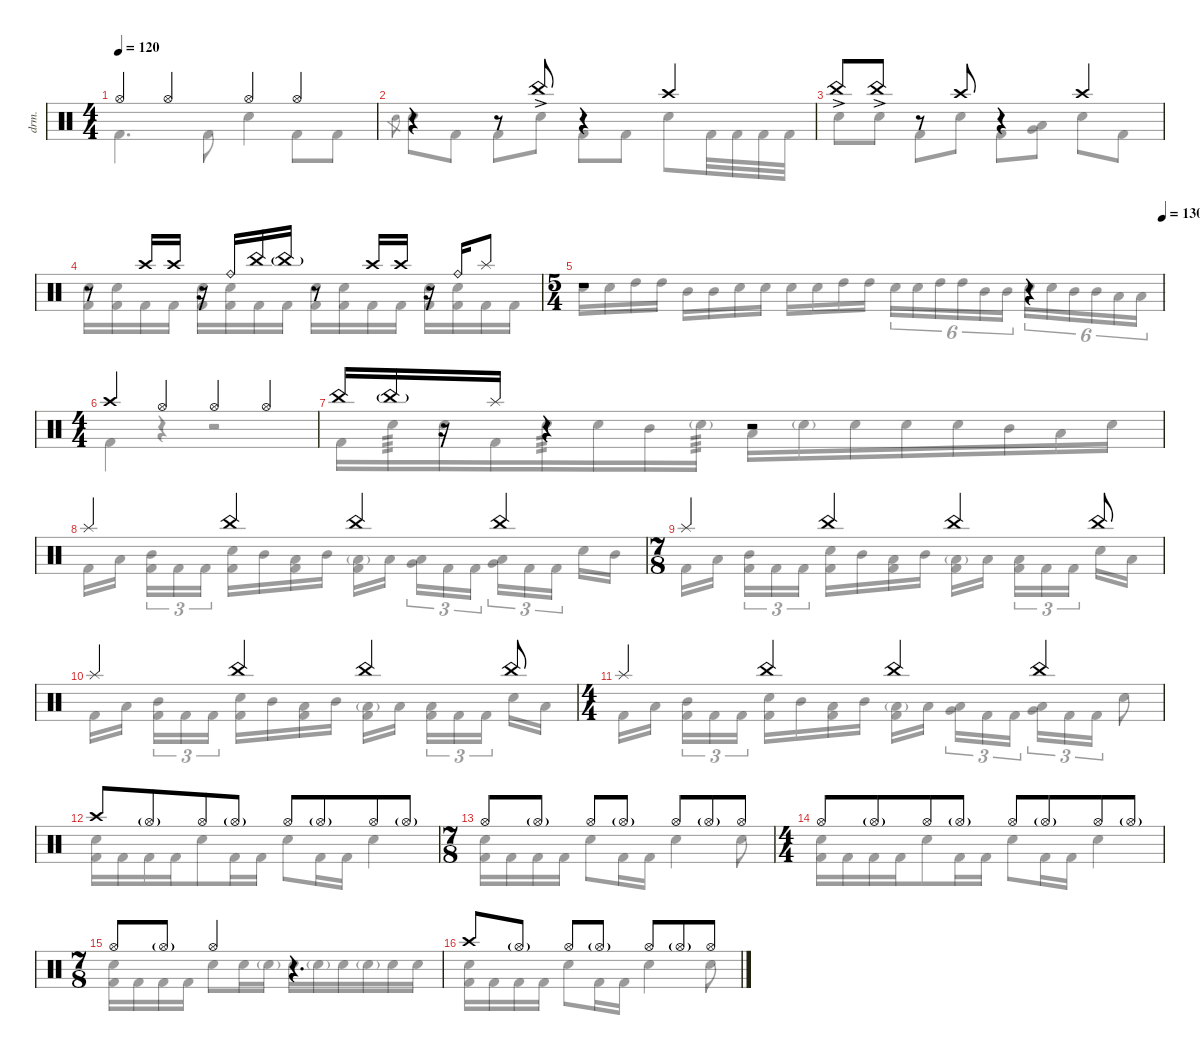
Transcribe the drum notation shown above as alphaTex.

\defaultSystemsLayout 4
\hideDynamics
\bracketExtendMode nobrackets
\otherSystemsTrackNameOrientation horizontal
\track ("B. Richardson Drums" "drm.") {instrument percussion}
\staff {score}
\articulation defaults
\voice
\ts (4 4)
\tempo 120
\clef neutral
\ks c "Hi-Hat (open)".4{dy mf beam Up} "Hi-Hat (open)".4{beam Up} "Hi-Hat (open)".4{beam Up} "Hi-Hat (open)".4{beam Up}
|
r.4{beam Up} r.8{beam Up} "China (hit)"{ac}.8{dy f beam Up} r.4{beam Up} "Crash high (hit)".4{dy mf beam Up} |
"China (hit)"{ac}.8{dy f beam Up} "China (hit)"{ac}.8{beam Up} r.8{beam Up} "Crash high (hit)".8{dy mf beam Up} r.4{beam Up} "Crash high (hit)".4{beam Up} |
r.8{beam Up} "Crash high (hit)".16{beam Up} "Crash high (hit)".16{beam Up} r.16{beam Up} "Ride (bell)".16{dy f beam Up} "China (hit)".16{beam Up} "China (hit)"{g}.16{dy pp beam Up} r.8{beam Up} "Crash high (hit)".16{dy mf beam Up} "Crash high (hit)".16{beam Up} r.16{beam Up} "Ride (bell)".16{dy f beam Up} "Splash (hit)".8{beam Up} |
\ts (5 4)
\beaming (8 2 2 2 4)
\tempo (130 1)
r.1{beam Up} r.4{beam Up} |
\ts (4 4)
\beaming (8 4 4)
"Crash high (hit)".4{dy mf beam Up} "Hi-Hat (open)".4{beam Up} "Hi-Hat (open)".4{beam Up} "Hi-Hat (open)".4{beam Up} |
"China (hit)".16{dy f beam Up} "China (hit)"{g}.16{dy pp beam Up} r.16{beam Up} "Splash (hit)".16{dy f beam Up} r.4{beam Up} r.2{beam Up} |
"Splash (hit)".4{dy mf beam Up} "China (hit)".4{dy f beam Up} "China (hit)".4{beam Up} "China (hit)".4{beam Up} |
\ts (7 8)
\beaming (8 2 2 3)
"Splash (hit)".4{beam Up} "China (hit)".4{beam Up} "China (hit)".4{beam Up} "China (hit)".8{beam Up} |
"Splash (hit)".4{beam Up} "China (hit)".4{beam Up} "China (hit)".4{beam Up} "China (hit)".8{beam Up} |
\ts (4 4)
\beaming (8 4 4)
"Splash (hit)".4{beam Up} "China (hit)".4{beam Up} "China (hit)".4{beam Up} "China (hit)".4{beam Up} |
"Crash high (hit)".8{dy mf beam Up} "Hi-Hat (open)"{g}.8{beam Up} "Hi-Hat (open)".8{beam Up} "Hi-Hat (open)"{g}.8{beam Up} "Hi-Hat (open)".8{beam Up} "Hi-Hat (open)"{g}.8{beam Up} "Hi-Hat (open)".8{beam Up} "Hi-Hat (open)"{g}.8{beam Up} |
\ts (7 8)
\beaming (8 2 2 3)
"Hi-Hat (open)".8{beam Up} "Hi-Hat (open)"{g}.8{beam Up} "Hi-Hat (open)".8{beam Up} "Hi-Hat (open)"{g}.8{beam Up} "Hi-Hat (open)".8{beam Up} "Hi-Hat (open)"{g}.8{beam Up} "Hi-Hat (open)".8{beam Up} |
\ts (4 4)
\beaming (8 4 4)
"Hi-Hat (open)".8{beam Up} "Hi-Hat (open)"{g}.8{beam Up} "Hi-Hat (open)".8{beam Up} "Hi-Hat (open)"{g}.8{beam Up} "Hi-Hat (open)".8{beam Up} "Hi-Hat (open)"{g}.8{beam Up} "Hi-Hat (open)".8{beam Up} "Hi-Hat (open)"{g}.8{beam Up} |
\ts (7 8)
\beaming (8 2 2 3)
"Hi-Hat (open)".8{beam Up} "Hi-Hat (open)"{g}.8{beam Up} "Hi-Hat (open)".4{beam Up} r.4{d beam Up} |
"Crash high (hit)".8{beam Up} "Hi-Hat (open)"{g}.8{beam Up} "Hi-Hat (open)".8{beam Up} "Hi-Hat (open)"{g}.8{beam Up} "Hi-Hat (open)".8{beam Up} "Hi-Hat (open)"{g}.8{beam Up} "Hi-Hat (open)".8{beam Up}
\voice
\clef neutral
\ottava regular
\simile none
\ks c "Kick (hit) 2".4{d dy fff beam Down} "Kick (hit) 2".8{beam Down} "Snare (hit) 2".4{beam Down} "Kick (hit) 2".8{beam Down} "Kick (hit) 2".8{beam Down}
|
"Electric Snare (hit)".8{gr dy ff beam Down} "Snare (hit) 2".8{dy fff beam Down} "Kick (hit) 2".8{beam Down} "Kick (hit) 2".8{beam Down} "Snare (hit) 2".8{beam Down} "Kick (hit) 2".8{beam Down} "Kick (hit) 2".8{beam Down} "Snare (hit) 2".8{beam Down} "Kick (hit) 2".32{beam Down} "Kick (hit) 2".32{beam Down} "Kick (hit) 2".32{beam Down} "Kick (hit) 2".32{beam Down} |
"Snare (hit) 2".8{beam Down} "Snare (hit) 2".8{beam Down} "Kick (hit) 2".8{beam Down} "Snare (hit) 2".8{beam Down} "Kick (hit) 2".8{beam Down} ("Low Tom (hit)" "Very Low Tom (hit)").8{beam Down} "Snare (hit) 2".8{beam Down} "Kick (hit) 2".8{beam Down} |
("Snare (hit) 2" "Kick (hit) 2").16{dy f beam Down} ("Snare (hit) 2" "Kick (hit) 2").16{beam Down} "Kick (hit) 2".16{dy fff beam Down} "Kick (hit) 2".16{beam Down} ("Snare (hit) 2" "Kick (hit) 2").16{dy f beam Down} ("Snare (hit) 2" "Kick (hit) 2").16{beam Down} "Kick (hit) 2".16{dy fff beam Down} "Kick (hit) 2".16{beam Down} ("Snare (hit) 2" "Kick (hit) 2").16{dy f beam Down} ("Snare (hit) 2" "Kick (hit) 2").16{beam Down} "Kick (hit) 2".16{dy fff beam Down} "Kick (hit) 2".16{beam Down} ("Snare (hit) 2" "Kick (hit) 2").16{dy f beam Down} ("Snare (hit) 2" "Kick (hit) 2").16{beam Down} "Kick (hit) 2".16{dy fff beam Down} "Kick (hit) 2".16{beam Down} |
"Snare (hit) 2".16{beam Down} "Snare (hit) 2".16{beam Down} "High Tom (hit)".16{beam Down} "High Tom (hit)".16{beam Down} "Mid Tom (hit)".16{beam Down} "Mid Tom (hit)".16{beam Down} "Snare (hit) 2".16{beam Down} "Snare (hit) 2".16{beam Down} "Snare (hit) 2".16{beam Down} "Snare (hit) 2".16{beam Down} "High Tom (hit)".16{beam Down} "High Tom (hit)".16{beam Down} "Snare (hit) 2".16{tu (6 4) beam Down} "Snare (hit) 2".16{tu (6 4) beam Down} "High Tom (hit)".16{tu (6 4) beam Down} "High Tom (hit)".16{tu (6 4) beam Down} "Mid Tom (hit)".16{tu (6 4) beam Down} "Mid Tom (hit)".16{tu (6 4) beam Down} "Snare (hit) 2".16{tu (6 4) beam Down} "Snare (hit) 2".16{tu (6 4) beam Down} "Mid Tom (hit)".16{tu (6 4) beam Down} "Mid Tom (hit)".16{tu (6 4) beam Down} "Low Tom (hit)".16{tu (6 4) beam Down} "Low Tom (hit)".16{tu (6 4) beam Down} |
"Kick (hit) 2".4{beam Down} r.4{beam Down} r.2{beam Down} |
"Kick (hit) 2".16{beam Down} "Snare (hit) 2".16{tp 3 dy f beam Down} "Snare (hit) 2".16{dy fff beam Down} "Kick (hit) 2".16{beam Down} "Snare (hit) 2".16{tp 3 dy f beam Down} "Snare (hit) 2".16{dy fff beam Down} "Mid Tom (hit)".16{dy f beam Down} "Snare (hit) 2"{g}.16{tp 3 dy mf beam Down} "Low Tom (hit)".16{dy f beam Down} "Snare (hit) 2"{g}.16{dy mf beam Down} "Snare (hit) 2".16{beam Down} "Snare (hit) 2".16{beam Down} "Snare (hit) 2".16{dy f beam Down} "Mid Tom (hit)".16{dy fff beam Down} "Low Tom (hit)".16{beam Down} "Snare (hit) 2".16{beam Down} |
"Kick (hit) 2".16{beam Down} "Low Tom (hit)".16{dy f beam Down} ("Mid Tom (hit)" "Kick (hit) 2").16{tu (3 2) beam Down} "Kick (hit) 2".16{tu (3 2) dy fff beam Down} "Kick (hit) 2".16{tu (3 2) beam Down} ("Snare (hit) 2" "Kick (hit) 2").16{beam Down} "Mid Tom (hit)".16{dy f beam Down} ("Low Tom (hit)" "Kick (hit) 2").16{beam Down} "Mid Tom (hit)".16{dy fff beam Down} ("Low Tom (hit)"{g} "Kick (hit) 2").16{beam Down} "Low Tom (hit)".16{beam Down} ("Low Tom (hit)" "Very Low Tom (hit)").16{tu (3 2) beam Down} "Kick (hit) 2".16{tu (3 2) beam Down} "Kick (hit) 2".16{tu (3 2) beam Down} ("Low Tom (hit)" "Very Low Tom (hit)").16{tu (3 2) beam Down} "Kick (hit) 2".16{tu (3 2) beam Down} "Kick (hit) 2".16{tu (3 2) beam Down} "Snare (hit) 2".16{beam Down} "Mid Tom (hit)".16{dy f beam Down} |
"Kick (hit) 2".16{dy fff beam Down} "Low Tom (hit)".16{dy f beam Down} ("Mid Tom (hit)" "Kick (hit) 2").16{tu (3 2) beam Down} "Kick (hit) 2".16{tu (3 2) dy fff beam Down} "Kick (hit) 2".16{tu (3 2) beam Down} ("Snare (hit) 2" "Kick (hit) 2").16{dy f beam Down} "Mid Tom (hit)".16{beam Down} ("Low Tom (hit)" "Kick (hit) 2").16{beam Down} "Mid Tom (hit)".16{dy fff beam Down} ("Low Tom (hit)"{g} "Kick (hit) 2").16{beam Down} "Low Tom (hit)".16{beam Down} ("Low Tom (hit)" "Kick (hit) 2").16{tu (3 2) dy f beam Down} "Kick (hit) 2".16{tu (3 2) dy fff beam Down} "Kick (hit) 2".16{tu (3 2) beam Down} "Snare (hit) 2".16{beam Down} "Low Tom (hit)".16{dy f beam Down} |
"Kick (hit) 2".16{dy fff beam Down} "Low Tom (hit)".16{dy f beam Down} ("Mid Tom (hit)" "Kick (hit) 2").16{tu (3 2) beam Down} "Kick (hit) 2".16{tu (3 2) dy fff beam Down} "Kick (hit) 2".16{tu (3 2) beam Down} ("Snare (hit) 2" "Kick (hit) 2").16{beam Down} "Mid Tom (hit)".16{dy f beam Down} ("Low Tom (hit)" "Kick (hit) 2").16{beam Down} "Mid Tom (hit)".16{dy fff beam Down} ("Low Tom (hit)"{g} "Kick (hit) 2").16{beam Down} "Low Tom (hit)".16{beam Down} ("Low Tom (hit)" "Kick (hit) 2").16{tu (3 2) dy f beam Down} "Kick (hit) 2".16{tu (3 2) dy fff beam Down} "Kick (hit) 2".16{tu (3 2) beam Down} "Snare (hit) 2".16{beam Down} "Low Tom (hit)".16{dy f beam Down} |
"Kick (hit) 2".16{dy fff beam Down} "Low Tom (hit)".16{dy f beam Down} ("Mid Tom (hit)" "Kick (hit) 2").16{tu (3 2) beam Down} "Kick (hit) 2".16{tu (3 2) dy fff beam Down} "Kick (hit) 2".16{tu (3 2) beam Down} ("Snare (hit) 2" "Kick (hit) 2").16{beam Down} "Mid Tom (hit)".16{dy f beam Down} ("Low Tom (hit)" "Kick (hit) 2").16{beam Down} "Mid Tom (hit)".16{dy fff beam Down} ("Low Tom (hit)"{g} "Kick (hit) 2").16{beam Down} "Low Tom (hit)".16{beam Down} ("Low Tom (hit)" "Very Low Tom (hit)").16{tu (3 2) beam Down} "Kick (hit) 2".16{tu (3 2) beam Down} "Kick (hit) 2".16{tu (3 2) beam Down} ("Low Tom (hit)" "Very Low Tom (hit)").16{tu (3 2) beam Down} "Kick (hit) 2".16{tu (3 2) beam Down} "Kick (hit) 2".16{tu (3 2) beam Down} "Snare (hit) 2".8{beam Down} |
("Snare (hit) 2" "Kick (hit) 2").16{beam Down} "Kick (hit) 2".16{beam Down} "Kick (hit) 2".16{beam Down} "Kick (hit) 2".16{beam Down} "Snare (hit) 2".8{beam Down} "Kick (hit) 2".16{beam Down} "Kick (hit) 2".16{beam Down} "Snare (hit) 2".8{beam Down} "Kick (hit) 2".16{beam Down} "Kick (hit) 2".16{beam Down} "Snare (hit) 2".4{beam Down} |
("Snare (hit) 2" "Kick (hit) 2").16{beam Down} "Kick (hit) 2".16{beam Down} "Kick (hit) 2".16{beam Down} "Kick (hit) 2".16{beam Down} "Snare (hit) 2".8{beam Down} "Kick (hit) 2".16{beam Down} "Kick (hit) 2".16{beam Down} "Snare (hit) 2".4{beam Down} "Snare (hit) 2".8{beam Down} |
("Snare (hit) 2" "Kick (hit) 2").16{beam Down} "Kick (hit) 2".16{beam Down} "Kick (hit) 2".16{beam Down} "Kick (hit) 2".16{beam Down} "Snare (hit) 2".8{beam Down} "Kick (hit) 2".16{beam Down} "Kick (hit) 2".16{beam Down} "Snare (hit) 2".8{beam Down} "Kick (hit) 2".16{beam Down} "Kick (hit) 2".16{beam Down} "Snare (hit) 2".4{beam Down} |
("Snare (hit) 2" "Kick (hit) 2").16{beam Down} "Kick (hit) 2".16{beam Down} "Kick (hit) 2".16{beam Down} "Kick (hit) 2".16{beam Down} "Snare (hit) 2".8{beam Down} "Snare (hit) 2".16{beam Down} "Snare (hit) 2"{g}.16{dy mf beam Down} "Snare (hit) 2".16{dy fff beam Down} "Snare (hit) 2"{g}.16{dy mf beam Down} "Snare (hit) 2".16{dy fff beam Down} "Snare (hit) 2"{g}.16{dy mf beam Down} "Snare (hit) 2".16{dy fff beam Down} "Snare (hit) 2".16{beam Down} |
("Snare (hit) 2" "Kick (hit) 2").16{beam Down} "Kick (hit) 2".16{beam Down} "Kick (hit) 2".16{beam Down} "Kick (hit) 2".16{beam Down} "Snare (hit) 2".8{beam Down} "Kick (hit) 2".16{beam Down} "Kick (hit) 2".16{beam Down} "Snare (hit) 2".4{beam Down} "Snare (hit) 2".8{beam Down}
